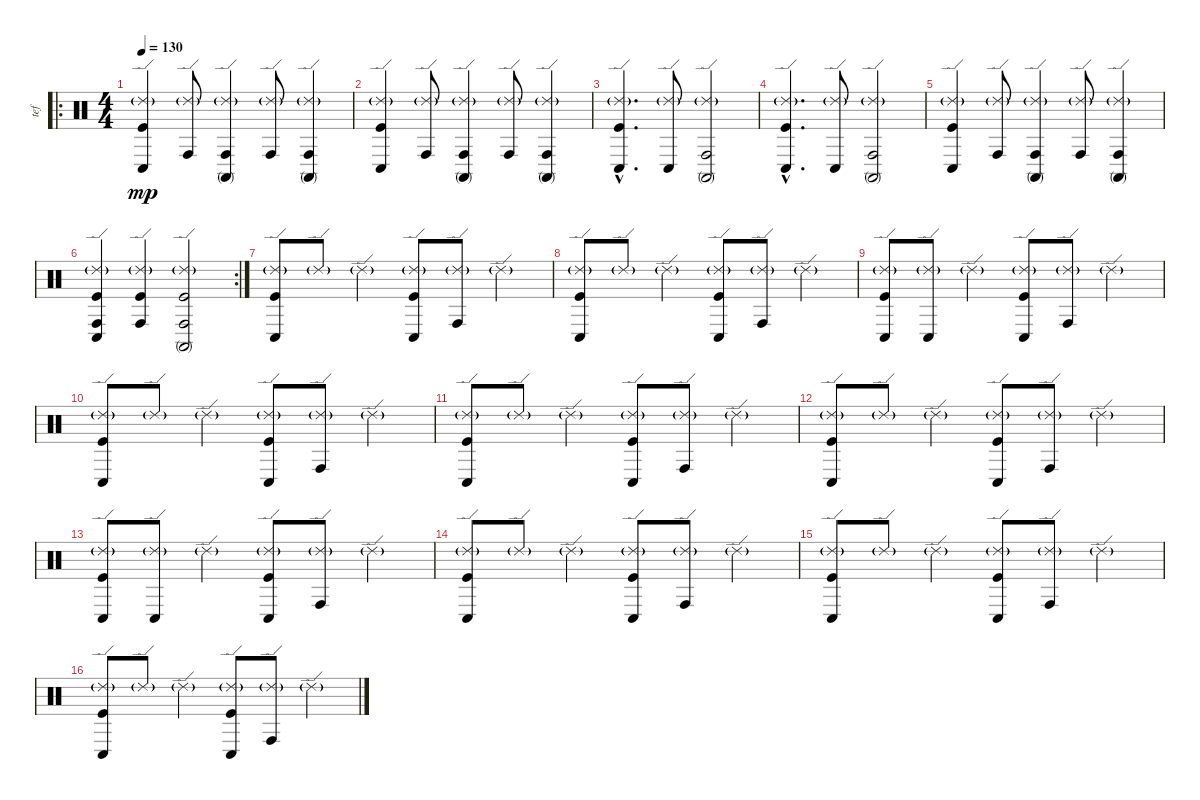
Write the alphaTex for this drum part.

\track ("tef" "tef") {instrument percussion}
\staff {score}
\articulation defaults
\ro
\ts (4 4)
\tempo 130
\clef neutral
\ks c
("Ride (edge) 2"{g} "Kick (hit)" "Conga low (hit)").4{dy mp} ("Ride (edge) 2"{g} "Conga high (hit)").8 ("Ride (edge) 2"{g} "Conga high (hit)" "Conga high (mute)").4 ("Ride (edge) 2"{g} "Conga high (hit)").8 ("Ride (edge) 2"{g} "Conga high (hit)" "Conga high (mute)").4 |
("Ride (edge) 2"{g} "Kick (hit)" "Conga low (hit)").4 ("Ride (edge) 2"{g} "Conga high (hit)").8 ("Ride (edge) 2"{g} "Conga high (hit)" "Conga high (mute)").4 ("Ride (edge) 2"{g} "Conga high (hit)").8 ("Ride (edge) 2"{g} "Conga high (hit)" "Conga high (mute)").4 |
("Ride (edge) 2"{g hac} "Kick (hit)"{hac} "Conga low (hit)"{hac}).4{d} ("Ride (edge) 2"{g} "Conga low (hit)").8 ("Ride (edge) 2"{g} "Conga high (mute)" "Conga high (hit)").2 |
("Ride (edge) 2"{g hac} "Kick (hit)"{hac} "Conga low (hit)"{hac}).4{d} ("Ride (edge) 2"{g} "Conga low (hit)").8 ("Ride (edge) 2"{g} "Conga high (mute)" "Conga high (hit)").2 |
("Ride (edge) 2"{g} "Kick (hit)" "Conga low (hit)").4 ("Ride (edge) 2"{g} "Conga high (hit)").8 ("Ride (edge) 2"{g} "Conga high (hit)" "Conga high (mute)").4 ("Ride (edge) 2"{g} "Conga high (hit)").8 ("Ride (edge) 2"{g} "Conga high (hit)" "Conga high (mute)").4 |
\rc 2
("Ride (edge) 2"{g} "Conga high (hit)" "Conga low (hit)" "Kick (hit)").4 ("Ride (edge) 2"{g} "Conga high (hit)" "Kick (hit)").4 ("Ride (edge) 2"{g} "Conga high (hit)" "Conga high (mute)" "Kick (hit)").2 |
("Ride (edge) 2"{g} "Kick (hit)" "Conga low (hit)").8 "Ride (edge) 2"{g}.8 "Ride (edge) 2"{g}.4 ("Ride (edge) 2"{g} "Kick (hit)" "Conga low (hit)").8 ("Ride (edge) 2"{g} "Conga high (hit)").8 "Ride (edge) 2"{g}.4 |
("Ride (edge) 2"{g} "Kick (hit)" "Conga low (hit)").8 "Ride (edge) 2"{g}.8 "Ride (edge) 2"{g}.4 ("Ride (edge) 2"{g} "Kick (hit)" "Conga low (hit)").8 ("Ride (edge) 2"{g} "Conga high (hit)").8 "Ride (edge) 2"{g}.4 |
("Ride (edge) 2"{g} "Kick (hit)" "Conga low (hit)").8 ("Ride (edge) 2"{g} "Conga low (hit)").8 "Ride (edge) 2"{g}.4 ("Ride (edge) 2"{g} "Kick (hit)" "Conga low (hit)").8 ("Ride (edge) 2"{g} "Conga high (hit)").8 "Ride (edge) 2"{g}.4 |
("Ride (edge) 2"{g} "Kick (hit)" "Conga low (hit)").8 "Ride (edge) 2"{g}.8 "Ride (edge) 2"{g}.4 ("Ride (edge) 2"{g} "Kick (hit)" "Conga low (hit)").8 ("Ride (edge) 2"{g} "Conga high (hit)").8 "Ride (edge) 2"{g}.4 |
("Ride (edge) 2"{g} "Kick (hit)" "Conga low (hit)").8 "Ride (edge) 2"{g}.8 "Ride (edge) 2"{g}.4 ("Ride (edge) 2"{g} "Kick (hit)" "Conga low (hit)").8 ("Ride (edge) 2"{g} "Conga high (hit)").8 "Ride (edge) 2"{g}.4 |
("Ride (edge) 2"{g} "Kick (hit)" "Conga low (hit)").8 "Ride (edge) 2"{g}.8 "Ride (edge) 2"{g}.4 ("Ride (edge) 2"{g} "Kick (hit)" "Conga low (hit)").8 ("Ride (edge) 2"{g} "Conga high (hit)").8 "Ride (edge) 2"{g}.4 |
("Ride (edge) 2"{g} "Kick (hit)" "Conga low (hit)").8 ("Ride (edge) 2"{g} "Conga low (hit)").8 "Ride (edge) 2"{g}.4 ("Ride (edge) 2"{g} "Kick (hit)" "Conga low (hit)").8 ("Ride (edge) 2"{g} "Conga high (hit)").8 "Ride (edge) 2"{g}.4 |
("Ride (edge) 2"{g} "Kick (hit)" "Conga low (hit)").8 "Ride (edge) 2"{g}.8 "Ride (edge) 2"{g}.4 ("Ride (edge) 2"{g} "Kick (hit)" "Conga low (hit)").8 ("Ride (edge) 2"{g} "Conga high (hit)").8 "Ride (edge) 2"{g}.4 |
("Ride (edge) 2"{g} "Kick (hit)" "Conga low (hit)").8 "Ride (edge) 2"{g}.8 "Ride (edge) 2"{g}.4 ("Ride (edge) 2"{g} "Kick (hit)" "Conga low (hit)").8 ("Ride (edge) 2"{g} "Conga high (hit)").8 "Ride (edge) 2"{g}.4 |
("Ride (edge) 2"{g} "Kick (hit)" "Conga low (hit)").8 "Ride (edge) 2"{g}.8 "Ride (edge) 2"{g}.4 ("Ride (edge) 2"{g} "Kick (hit)" "Conga low (hit)").8 ("Ride (edge) 2"{g} "Conga high (hit)").8 "Ride (edge) 2"{g}.4
